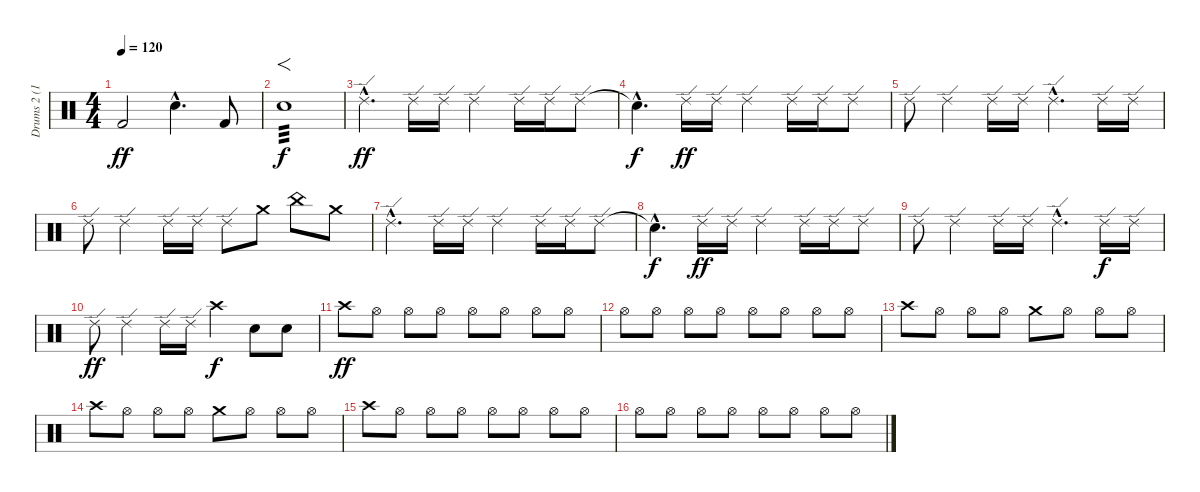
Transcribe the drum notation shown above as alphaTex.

\track ("Drums 2 (16)" "Drums 2 (1") {instrument percussion}
\staff {score}
\articulation defaults
\ts (4 4)
\tempo 120
\clef neutral
\ks c "Kick (hit) 2".2{dy ff} "Snare (hit) 2"{hac}.4{d} "Kick (hit) 2".8
|
"Snare (hit) 2".1{f tp 3 dy f} |
"Ride (edge) 2"{hac}.4{d dy ff} "Ride (edge) 2".16 "Ride (edge) 2".16 "Ride (edge) 2".4 "Ride (edge) 2".16 "Ride (edge) 2".16 "Ride (edge) 2".8 |
"Snare (hit)"{hac t}.4{d dy f} "Ride (edge) 2".16{dy ff} "Ride (edge) 2".16 "Ride (edge) 2".4 "Ride (edge) 2".16 "Ride (edge) 2".16 "Ride (edge) 2".8 |
"Ride (edge) 2".8 "Ride (edge) 2".4 "Ride (edge) 2".16 "Ride (edge) 2".16 "Ride (edge) 2"{hac}.4{d} "Ride (edge) 2".16 "Ride (edge) 2".16 |
"Ride (edge) 2".8 "Ride (edge) 2".4 "Ride (edge) 2".16 "Ride (edge) 2".16 "Ride (edge) 2".8 "Crash medium (hit)".8 "China (hit)".8 "Crash medium (hit)".8 |
"Ride (edge) 2"{hac}.4{d} "Ride (edge) 2".16 "Ride (edge) 2".16 "Ride (edge) 2".4 "Ride (edge) 2".16 "Ride (edge) 2".16 "Ride (edge) 2".8 |
"Snare (hit)"{hac t}.4{d dy f} "Ride (edge) 2".16{dy ff} "Ride (edge) 2".16 "Ride (edge) 2".4 "Ride (edge) 2".16 "Ride (edge) 2".16 "Ride (edge) 2".8 |
"Ride (edge) 2".8 "Ride (edge) 2".4 "Ride (edge) 2".16 "Ride (edge) 2".16 "Ride (edge) 2"{hac}.4{d} "Ride (edge) 2".16{dy f} "Ride (edge) 2".16 |
"Ride (edge) 2".8{dy ff} "Ride (edge) 2".4 "Ride (edge) 2".16 "Ride (edge) 2".16 "Crash high (hit)".4{dy f} "Hand Clap (hit)".8 "Hand Clap (hit)".8 |
"Crash high (hit)".8{dy ff} "Hi-Hat (open)".8 "Hi-Hat (open)".8 "Hi-Hat (open)".8 "Hi-Hat (open)".8 "Hi-Hat (open)".8 "Hi-Hat (open)".8 "Hi-Hat (open)".8 |
"Hi-Hat (open)".8 "Hi-Hat (open)".8 "Hi-Hat (open)".8 "Hi-Hat (open)".8 "Hi-Hat (open)".8 "Hi-Hat (open)".8 "Hi-Hat (open)".8 "Hi-Hat (open)".8 |
"Crash high (hit)".8 "Hi-Hat (open)".8 "Hi-Hat (open)".8 "Hi-Hat (open)".8 "Crash medium (hit)".8 "Hi-Hat (open)".8 "Hi-Hat (open)".8 "Hi-Hat (open)".8 |
"Crash high (hit)".8 "Hi-Hat (open)".8 "Hi-Hat (open)".8 "Hi-Hat (open)".8 "Crash medium (hit)".8 "Hi-Hat (open)".8 "Hi-Hat (open)".8 "Hi-Hat (open)".8 |
"Crash high (hit)".8 "Hi-Hat (open)".8 "Hi-Hat (open)".8 "Hi-Hat (open)".8 "Hi-Hat (open)".8 "Hi-Hat (open)".8 "Hi-Hat (open)".8 "Hi-Hat (open)".8 |
"Hi-Hat (open)".8 "Hi-Hat (open)".8 "Hi-Hat (open)".8 "Hi-Hat (open)".8 "Hi-Hat (open)".8 "Hi-Hat (open)".8 "Hi-Hat (open)".8 "Hi-Hat (open)".8
